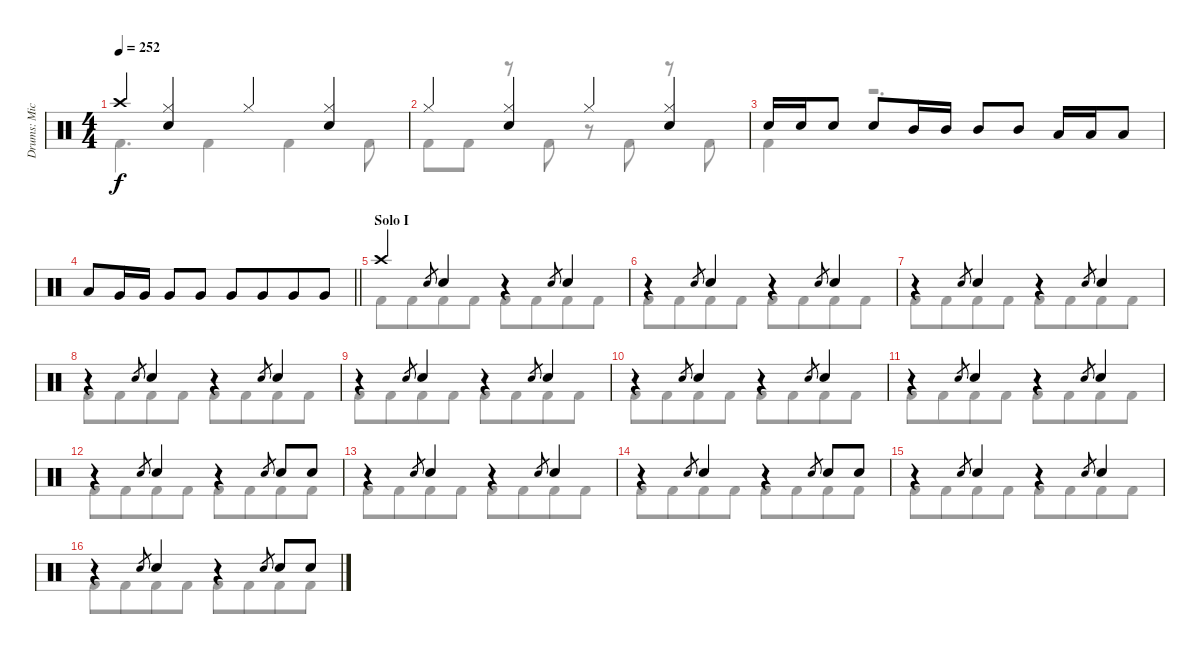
\track ("Drums: Mick" "Drums: Mic") {instrument percussion}
\staff {score}
\articulation defaults
\voice
\ts (4 4)
\tempo 252
\clef neutral
\ks c "Crash high (hit)".4{dy f}
("Hi-Hat (closed)" "Snare (hit) 2").4 "Hi-Hat (closed)".4 ("Hi-Hat (closed)" "Snare (hit) 2").4 |
"Hi-Hat (closed)".4 ("Hi-Hat (closed)" "Snare (hit) 2").4 "Hi-Hat (closed)".4 ("Hi-Hat (closed)" "Snare (hit) 2").4 |
"Snare (hit) 2".16 "Snare (hit) 2".16 "Snare (hit) 2".8 "Snare (hit) 2".8 "Mid Tom (hit)".16 "Mid Tom (hit)".16 "Mid Tom (hit)".8 "Mid Tom (hit)".8 "Low Tom (hit)".16 "Low Tom (hit)".16 "Low Tom (hit)".8 |
\barLineRight lightlight "Low Tom (hit)".8 "Very Low Tom (hit)".16 "Very Low Tom (hit)".16 "Very Low Tom (hit)".8 "Very Low Tom (hit)".8 "Very Low Tom (hit)".8 "Very Low Tom (hit)".8{beam merge} "Very Low Tom (hit)".8 "Very Low Tom (hit)".8
|
\section ("" "Solo I")
"Crash high (hit)".4 "Electric Snare (hit)".8{gr} "Snare (hit) 2".4 r.4 "Electric Snare (hit)".8{gr} "Snare (hit) 2".4 |
r.4 "Electric Snare (hit)".8{gr} "Snare (hit) 2".4 r.4 "Electric Snare (hit)".8{gr} "Snare (hit) 2".4 |
r.4 "Electric Snare (hit)".8{gr} "Snare (hit) 2".4 r.4 "Electric Snare (hit)".8{gr} "Snare (hit) 2".4 |
r.4 "Electric Snare (hit)".8{gr} "Snare (hit) 2".4 r.4 "Electric Snare (hit)".8{gr} "Snare (hit) 2".4 |
r.4 "Electric Snare (hit)".8{gr} "Snare (hit) 2".4 r.4 "Electric Snare (hit)".8{gr} "Snare (hit) 2".4 |
r.4 "Electric Snare (hit)".8{gr} "Snare (hit) 2".4 r.4 "Electric Snare (hit)".8{gr} "Snare (hit) 2".4 |
r.4 "Electric Snare (hit)".8{gr} "Snare (hit) 2".4 r.4 "Electric Snare (hit)".8{gr} "Snare (hit) 2".4 |
r.4 "Electric Snare (hit)".8{gr} "Snare (hit) 2".4 r.4 "Electric Snare (hit)".8{gr} "Snare (hit) 2".8 "Snare (hit) 2".8 |
r.4 "Electric Snare (hit)".8{gr} "Snare (hit) 2".4 r.4 "Electric Snare (hit)".8{gr} "Snare (hit) 2".4 |
r.4 "Electric Snare (hit)".8{gr} "Snare (hit) 2".4 r.4 "Electric Snare (hit)".8{gr} "Snare (hit) 2".8 "Snare (hit) 2".8 |
r.4 "Electric Snare (hit)".8{gr} "Snare (hit) 2".4 r.4 "Electric Snare (hit)".8{gr} "Snare (hit) 2".4 |
r.4 "Electric Snare (hit)".8{gr} "Snare (hit) 2".4 r.4 "Electric Snare (hit)".8{gr} "Snare (hit) 2".8 "Snare (hit) 2".8
\voice
\clef neutral
\ottava regular
\simile none
\ks c "Kick (hit) 2".4{d dy f} "Kick (hit) 2".4 "Kick (hit) 2".4 "Kick (hit) 2".8
|
"Kick (hit) 2".8 "Kick (hit) 2".8 r.8 "Kick (hit) 2".8 r.8 "Kick (hit) 2".8 r.8 "Kick (hit) 2".8 |
"Kick (hit) 2".4 r.2{d} |
\barLineRight lightlight
|
"Kick (hit) 2".8 "Kick (hit) 2".8{beam merge} "Kick (hit) 2".8 "Kick (hit) 2".8 "Kick (hit) 2".8 "Kick (hit) 2".8{beam merge} "Kick (hit) 2".8 "Kick (hit) 2".8 |
"Kick (hit) 2".8 "Kick (hit) 2".8{beam merge} "Kick (hit) 2".8 "Kick (hit) 2".8 "Kick (hit) 2".8 "Kick (hit) 2".8{beam merge} "Kick (hit) 2".8 "Kick (hit) 2".8 |
"Kick (hit) 2".8 "Kick (hit) 2".8{beam merge} "Kick (hit) 2".8 "Kick (hit) 2".8 "Kick (hit) 2".8 "Kick (hit) 2".8{beam merge} "Kick (hit) 2".8 "Kick (hit) 2".8 |
"Kick (hit) 2".8 "Kick (hit) 2".8{beam merge} "Kick (hit) 2".8 "Kick (hit) 2".8 "Kick (hit) 2".8 "Kick (hit) 2".8{beam merge} "Kick (hit) 2".8 "Kick (hit) 2".8 |
"Kick (hit) 2".8 "Kick (hit) 2".8{beam merge} "Kick (hit) 2".8 "Kick (hit) 2".8 "Kick (hit) 2".8 "Kick (hit) 2".8{beam merge} "Kick (hit) 2".8 "Kick (hit) 2".8 |
"Kick (hit) 2".8 "Kick (hit) 2".8{beam merge} "Kick (hit) 2".8 "Kick (hit) 2".8 "Kick (hit) 2".8 "Kick (hit) 2".8{beam merge} "Kick (hit) 2".8 "Kick (hit) 2".8 |
"Kick (hit) 2".8 "Kick (hit) 2".8{beam merge} "Kick (hit) 2".8 "Kick (hit) 2".8 "Kick (hit) 2".8 "Kick (hit) 2".8{beam merge} "Kick (hit) 2".8 "Kick (hit) 2".8 |
"Kick (hit) 2".8 "Kick (hit) 2".8{beam merge} "Kick (hit) 2".8 "Kick (hit) 2".8 "Kick (hit) 2".8 "Kick (hit) 2".8{beam merge} "Kick (hit) 2".8 "Kick (hit) 2".8 |
"Kick (hit) 2".8 "Kick (hit) 2".8{beam merge} "Kick (hit) 2".8 "Kick (hit) 2".8 "Kick (hit) 2".8 "Kick (hit) 2".8{beam merge} "Kick (hit) 2".8 "Kick (hit) 2".8 |
"Kick (hit) 2".8 "Kick (hit) 2".8{beam merge} "Kick (hit) 2".8 "Kick (hit) 2".8 "Kick (hit) 2".8 "Kick (hit) 2".8{beam merge} "Kick (hit) 2".8 "Kick (hit) 2".8 |
"Kick (hit) 2".8 "Kick (hit) 2".8{beam merge} "Kick (hit) 2".8 "Kick (hit) 2".8 "Kick (hit) 2".8 "Kick (hit) 2".8{beam merge} "Kick (hit) 2".8 "Kick (hit) 2".8 |
"Kick (hit) 2".8 "Kick (hit) 2".8{beam merge} "Kick (hit) 2".8 "Kick (hit) 2".8 "Kick (hit) 2".8 "Kick (hit) 2".8{beam merge} "Kick (hit) 2".8 "Kick (hit) 2".8
